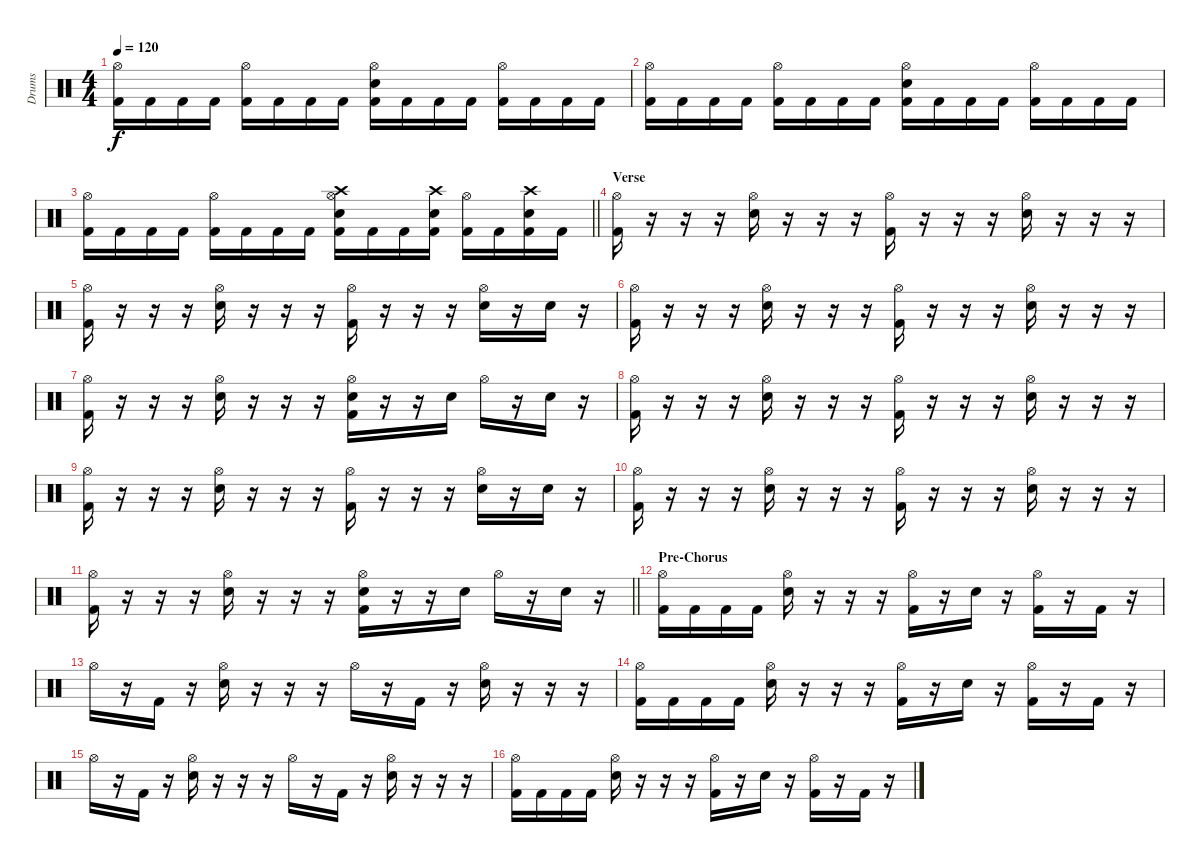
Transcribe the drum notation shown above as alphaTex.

\track ("Drums" "Drums") {instrument percussion}
\staff {score}
\articulation defaults
\ts (4 4)
\tempo 120
\clef neutral
\ks c
("Hi-Hat (open)" "Kick (hit) 2").16{dy f} "Kick (hit) 2".16 "Kick (hit) 2".16 "Kick (hit) 2".16 ("Hi-Hat (open)" "Kick (hit) 2").16 "Kick (hit) 2".16 "Kick (hit) 2".16 "Kick (hit) 2".16 ("Hi-Hat (open)" "Snare (hit) 2" "Kick (hit) 2").16 "Kick (hit) 2".16 "Kick (hit) 2".16 "Kick (hit) 2".16 ("Hi-Hat (open)" "Kick (hit) 2").16 "Kick (hit) 2".16 "Kick (hit) 2".16 "Kick (hit) 2".16 |
("Hi-Hat (open)" "Kick (hit) 2").16 "Kick (hit) 2".16 "Kick (hit) 2".16 "Kick (hit) 2".16 ("Hi-Hat (open)" "Kick (hit) 2").16 "Kick (hit) 2".16 "Kick (hit) 2".16 "Kick (hit) 2".16 ("Hi-Hat (open)" "Snare (hit) 2" "Kick (hit) 2").16 "Kick (hit) 2".16 "Kick (hit) 2".16 "Kick (hit) 2".16 ("Hi-Hat (open)" "Kick (hit) 2").16 "Kick (hit) 2".16 "Kick (hit) 2".16 "Kick (hit) 2".16 |
\barLineRight lightlight
("Hi-Hat (open)" "Kick (hit) 2").16 "Kick (hit) 2".16 "Kick (hit) 2".16 "Kick (hit) 2".16 ("Hi-Hat (open)" "Kick (hit) 2").16 "Kick (hit) 2".16 "Kick (hit) 2".16 "Kick (hit) 2".16 ("Crash high (hit)" "Hi-Hat (open)" "Snare (hit) 2" "Kick (hit) 2").16 "Kick (hit) 2".16 "Kick (hit) 2".16 ("Crash high (hit)" "Snare (hit) 2" "Kick (hit) 2").16 ("Hi-Hat (open)" "Kick (hit) 2").16 "Kick (hit) 2".16 ("Crash high (hit)" "Snare (hit) 2" "Kick (hit) 2").16 "Kick (hit) 2".16 |
\section ("" "Verse")
("Hi-Hat (open)" "Kick (hit) 2").16 r.16 r.16 r.16 ("Hi-Hat (open)" "Snare (hit) 2").16 r.16 r.16 r.16 ("Hi-Hat (open)" "Kick (hit) 2").16 r.16 r.16 r.16 ("Hi-Hat (open)" "Snare (hit) 2").16 r.16 r.16 r.16 |
("Hi-Hat (open)" "Kick (hit) 2").16 r.16 r.16 r.16 ("Hi-Hat (open)" "Snare (hit) 2").16 r.16 r.16 r.16 ("Hi-Hat (open)" "Kick (hit) 2").16 r.16 r.16 r.16 ("Hi-Hat (open)" "Snare (hit) 2").16 r.16 "Snare (hit) 2".16 r.16 |
("Hi-Hat (open)" "Kick (hit) 2").16 r.16 r.16 r.16 ("Hi-Hat (open)" "Snare (hit) 2").16 r.16 r.16 r.16 ("Hi-Hat (open)" "Kick (hit) 2").16 r.16 r.16 r.16 ("Hi-Hat (open)" "Snare (hit) 2").16 r.16 r.16 r.16 |
("Hi-Hat (open)" "Kick (hit) 2").16 r.16 r.16 r.16 ("Hi-Hat (open)" "Snare (hit) 2").16 r.16 r.16 r.16 ("Hi-Hat (open)" "Snare (hit) 2" "Kick (hit) 2").16 r.16 r.16 "Snare (hit) 2".16 "Hi-Hat (open)".16 r.16 "Snare (hit) 2".16 r.16 |
("Hi-Hat (open)" "Kick (hit) 2").16 r.16 r.16 r.16 ("Hi-Hat (open)" "Snare (hit) 2").16 r.16 r.16 r.16 ("Hi-Hat (open)" "Kick (hit) 2").16 r.16 r.16 r.16 ("Hi-Hat (open)" "Snare (hit) 2").16 r.16 r.16 r.16 |
("Hi-Hat (open)" "Kick (hit) 2").16 r.16 r.16 r.16 ("Hi-Hat (open)" "Snare (hit) 2").16 r.16 r.16 r.16 ("Hi-Hat (open)" "Kick (hit) 2").16 r.16 r.16 r.16 ("Hi-Hat (open)" "Snare (hit) 2").16 r.16 "Snare (hit) 2".16 r.16 |
("Hi-Hat (open)" "Kick (hit) 2").16 r.16 r.16 r.16 ("Hi-Hat (open)" "Snare (hit) 2").16 r.16 r.16 r.16 ("Hi-Hat (open)" "Kick (hit) 2").16 r.16 r.16 r.16 ("Hi-Hat (open)" "Snare (hit) 2").16 r.16 r.16 r.16 |
\barLineRight lightlight
("Hi-Hat (open)" "Kick (hit) 2").16 r.16 r.16 r.16 ("Hi-Hat (open)" "Snare (hit) 2").16 r.16 r.16 r.16 ("Hi-Hat (open)" "Snare (hit) 2" "Kick (hit) 2").16 r.16 r.16 "Snare (hit) 2".16 "Hi-Hat (open)".16 r.16 "Snare (hit) 2".16 r.16 |
\section ("" "Pre-Chorus")
("Hi-Hat (open)" "Kick (hit) 2").16 "Kick (hit) 2".16 "Kick (hit) 2".16 "Kick (hit) 2".16 ("Hi-Hat (open)" "Snare (hit) 2").16 r.16 r.16 r.16 ("Hi-Hat (open)" "Kick (hit) 2").16 r.16 "Snare (hit) 2".16 r.16 ("Hi-Hat (open)" "Kick (hit) 2").16 r.16 "Kick (hit) 2".16 r.16 |
"Hi-Hat (open)".16 r.16 "Kick (hit) 2".16 r.16 ("Hi-Hat (open)" "Snare (hit) 2").16 r.16 r.16 r.16 "Hi-Hat (open)".16 r.16 "Kick (hit) 2".16 r.16 ("Hi-Hat (open)" "Snare (hit) 2").16 r.16 r.16 r.16 |
("Hi-Hat (open)" "Kick (hit) 2").16 "Kick (hit) 2".16 "Kick (hit) 2".16 "Kick (hit) 2".16 ("Hi-Hat (open)" "Snare (hit) 2").16 r.16 r.16 r.16 ("Hi-Hat (open)" "Kick (hit) 2").16 r.16 "Snare (hit) 2".16 r.16 ("Hi-Hat (open)" "Kick (hit) 2").16 r.16 "Kick (hit) 2".16 r.16 |
"Hi-Hat (open)".16 r.16 "Kick (hit) 2".16 r.16 ("Hi-Hat (open)" "Snare (hit) 2").16 r.16 r.16 r.16 "Hi-Hat (open)".16 r.16 "Kick (hit) 2".16 r.16 ("Hi-Hat (open)" "Snare (hit) 2").16 r.16 r.16 r.16 |
("Hi-Hat (open)" "Kick (hit) 2").16 "Kick (hit) 2".16 "Kick (hit) 2".16 "Kick (hit) 2".16 ("Hi-Hat (open)" "Snare (hit) 2").16 r.16 r.16 r.16 ("Hi-Hat (open)" "Kick (hit) 2").16 r.16 "Snare (hit) 2".16 r.16 ("Hi-Hat (open)" "Kick (hit) 2").16 r.16 "Kick (hit) 2".16 r.16
